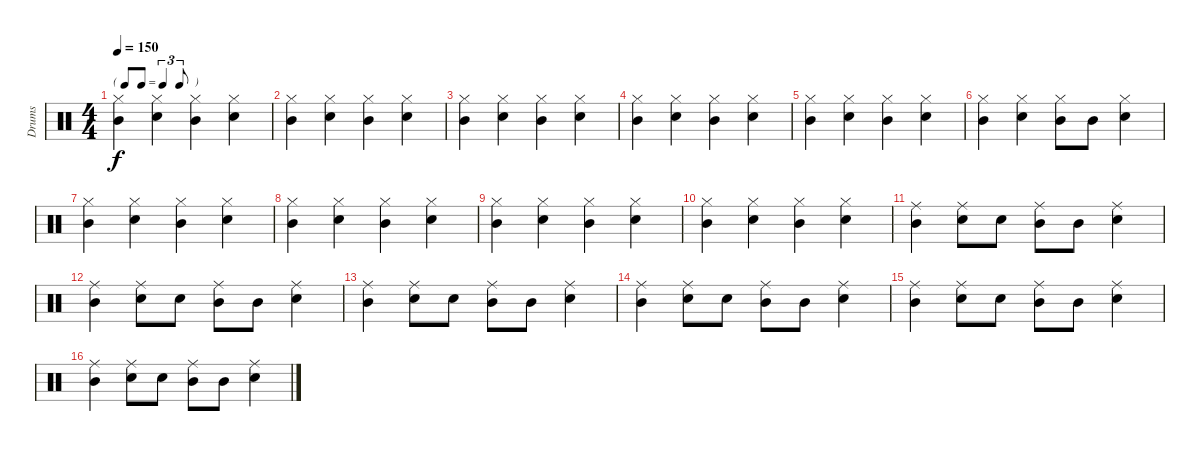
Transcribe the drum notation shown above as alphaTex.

\track ("Drums" "Drums") {instrument percussion}
\staff {score}
\articulation defaults
\ts (4 4)
\tf triplet8th
\tempo 150
\clef neutral
\ks c
("Mid Tom (hit)" "Hi-Hat (closed)").4{dy f} ("Snare (hit) 2" "Hi-Hat (closed)").4 ("Mid Tom (hit)" "Hi-Hat (closed)").4 ("Snare (hit) 2" "Hi-Hat (closed)").4 |
("Mid Tom (hit)" "Hi-Hat (closed)").4 ("Snare (hit) 2" "Hi-Hat (closed)").4 ("Mid Tom (hit)" "Hi-Hat (closed)").4 ("Snare (hit) 2" "Hi-Hat (closed)").4 |
("Mid Tom (hit)" "Hi-Hat (closed)").4 ("Snare (hit) 2" "Hi-Hat (closed)").4 ("Mid Tom (hit)" "Hi-Hat (closed)").4 ("Snare (hit) 2" "Hi-Hat (closed)").4 |
("Mid Tom (hit)" "Hi-Hat (closed)").4 ("Snare (hit) 2" "Hi-Hat (closed)").4 ("Mid Tom (hit)" "Hi-Hat (closed)").4 ("Snare (hit) 2" "Hi-Hat (closed)").4 |
("Mid Tom (hit)" "Hi-Hat (closed)").4 ("Snare (hit) 2" "Hi-Hat (closed)").4 ("Mid Tom (hit)" "Hi-Hat (closed)").4 ("Snare (hit) 2" "Hi-Hat (closed)").4 |
("Mid Tom (hit)" "Hi-Hat (closed)").4 ("Snare (hit) 2" "Hi-Hat (closed)").4 ("Mid Tom (hit)" "Hi-Hat (closed)").8 "Mid Tom (hit)".8 ("Snare (hit) 2" "Hi-Hat (closed)").4 |
("Mid Tom (hit)" "Hi-Hat (closed)").4 ("Snare (hit) 2" "Hi-Hat (closed)").4 ("Mid Tom (hit)" "Hi-Hat (closed)").4 ("Snare (hit) 2" "Hi-Hat (closed)").4 |
("Mid Tom (hit)" "Hi-Hat (closed)").4 ("Snare (hit) 2" "Hi-Hat (closed)").4 ("Mid Tom (hit)" "Hi-Hat (closed)").4 ("Snare (hit) 2" "Hi-Hat (closed)").4 |
("Mid Tom (hit)" "Hi-Hat (closed)").4 ("Snare (hit) 2" "Hi-Hat (closed)").4 ("Mid Tom (hit)" "Hi-Hat (closed)").4 ("Snare (hit) 2" "Hi-Hat (closed)").4 |
("Mid Tom (hit)" "Hi-Hat (closed)").4 ("Snare (hit) 2" "Hi-Hat (closed)").4 ("Mid Tom (hit)" "Hi-Hat (closed)").4 ("Snare (hit) 2" "Hi-Hat (closed)").4 |
("Mid Tom (hit)" "Ride (middle)").4 ("Snare (hit) 2" "Ride (middle)").8 "Snare (hit) 2".8 ("Mid Tom (hit)" "Ride (middle)").8 "Mid Tom (hit)".8 ("Snare (hit) 2" "Ride (middle)").4 |
("Mid Tom (hit)" "Ride (middle)").4 ("Snare (hit) 2" "Ride (middle)").8 "Snare (hit) 2".8 ("Mid Tom (hit)" "Ride (middle)").8 "Mid Tom (hit)".8 ("Snare (hit) 2" "Ride (middle)").4 |
("Mid Tom (hit)" "Ride (middle)").4 ("Snare (hit) 2" "Ride (middle)").8 "Snare (hit) 2".8 ("Mid Tom (hit)" "Ride (middle)").8 "Mid Tom (hit)".8 ("Snare (hit) 2" "Ride (middle)").4 |
("Mid Tom (hit)" "Ride (middle)").4 ("Snare (hit) 2" "Ride (middle)").8 "Snare (hit) 2".8 ("Mid Tom (hit)" "Ride (middle)").8 "Mid Tom (hit)".8 ("Snare (hit) 2" "Ride (middle)").4 |
("Mid Tom (hit)" "Ride (middle)").4 ("Snare (hit) 2" "Ride (middle)").8 "Snare (hit) 2".8 ("Mid Tom (hit)" "Ride (middle)").8 "Mid Tom (hit)".8 ("Snare (hit) 2" "Ride (middle)").4 |
("Mid Tom (hit)" "Ride (middle)").4 ("Snare (hit) 2" "Ride (middle)").8 "Snare (hit) 2".8 ("Mid Tom (hit)" "Ride (middle)").8 "Mid Tom (hit)".8 ("Snare (hit) 2" "Ride (middle)").4
